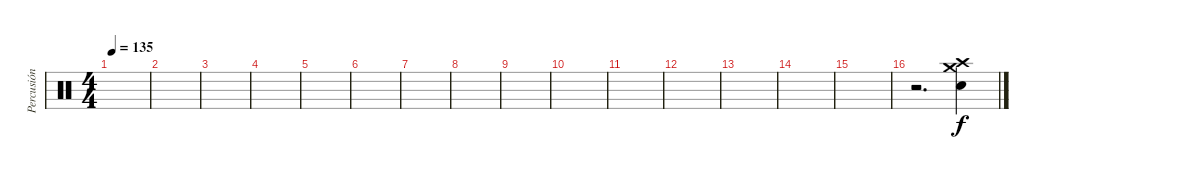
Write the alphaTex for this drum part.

\track ("Percusión" "Percusión") {instrument percussion}
\staff {score}
\articulation defaults
\ts (4 4)
\tempo 135
\clef neutral
\ks c
|
|
|
|
|
|
|
|
|
|
|
|
|
|
|
r.2{d} ("Snare (hit) 2" "Crash high (hit)" "Crash medium (hit)").4
